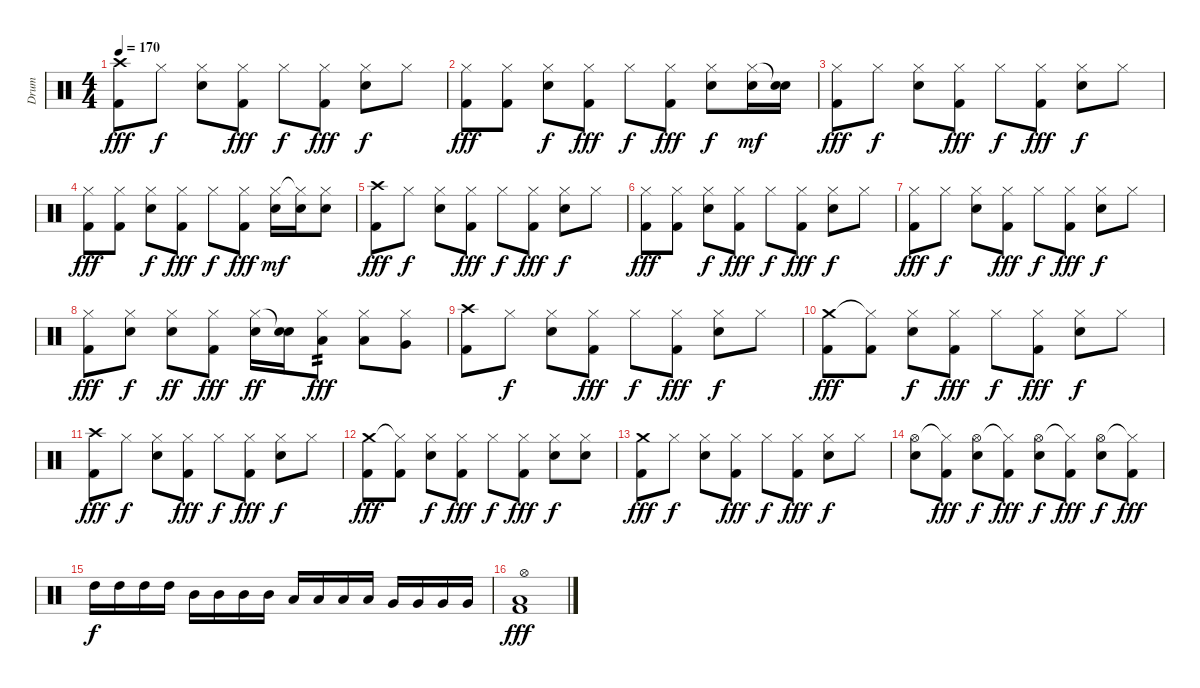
\track ("Drum" "Drum") {instrument percussion}
\staff {score}
\articulation defaults
\ts (4 4)
\tempo 170
\clef neutral
\ks c
("Crash high (hit)" "Kick (hit) 2").8{dy fff} "Hi-Hat (closed)".8{dy f} ("Hi-Hat (closed)" "Snare (hit) 2").8 ("Hi-Hat (closed)" "Kick (hit) 2").8{dy fff} "Hi-Hat (closed)".8{dy f} ("Hi-Hat (closed)" "Kick (hit) 2").8{dy fff} ("Hi-Hat (closed)" "Snare (hit) 2").8{dy f} "Hi-Hat (closed)".8 |
("Hi-Hat (closed)" "Kick (hit) 2").8{dy fff} ("Hi-Hat (closed)" "Kick (hit) 2").8 ("Hi-Hat (closed)" "Snare (hit) 2").8{dy f} ("Hi-Hat (closed)" "Kick (hit) 2").8{dy fff} "Hi-Hat (closed)".8{dy f} ("Hi-Hat (closed)" "Kick (hit) 2").8{dy fff} ("Hi-Hat (closed)" "Snare (hit) 2").8{dy f} ("Hi-Hat (closed)" "Snare (hit) 2").16{dy mf} ("Snare (hit)"{t} "Snare (hit) 2").16 |
("Hi-Hat (closed)" "Kick (hit) 2").8{dy fff} "Hi-Hat (closed)".8{dy f} ("Hi-Hat (closed)" "Snare (hit) 2").8 ("Hi-Hat (closed)" "Kick (hit) 2").8{dy fff} "Hi-Hat (closed)".8{dy f} ("Hi-Hat (closed)" "Kick (hit) 2").8{dy fff} ("Hi-Hat (closed)" "Snare (hit) 2").8{dy f} "Hi-Hat (closed)".8 |
("Hi-Hat (closed)" "Kick (hit) 2").8{dy fff} ("Hi-Hat (closed)" "Kick (hit) 2").8 ("Hi-Hat (closed)" "Snare (hit) 2").8{dy f} ("Hi-Hat (closed)" "Kick (hit) 2").8{dy fff} "Hi-Hat (closed)".8{dy f} ("Hi-Hat (closed)" "Kick (hit) 2").8{dy fff} ("Hi-Hat (closed)" "Snare (hit) 2").16{dy mf} ("Hi-Hat (closed)"{t} "Snare (hit) 2").16 ("Hi-Hat (closed)" "Snare (hit) 2").8 |
("Crash high (hit)" "Kick (hit) 2").8{dy fff} "Hi-Hat (closed)".8{dy f} ("Hi-Hat (closed)" "Snare (hit) 2").8 ("Hi-Hat (closed)" "Kick (hit) 2").8{dy fff} "Hi-Hat (closed)".8{dy f} ("Hi-Hat (closed)" "Kick (hit) 2").8{dy fff} ("Hi-Hat (closed)" "Snare (hit) 2").8{dy f} "Hi-Hat (closed)".8 |
("Hi-Hat (closed)" "Kick (hit) 2").8{dy fff} ("Hi-Hat (closed)" "Kick (hit) 2").8 ("Hi-Hat (closed)" "Snare (hit) 2").8{dy f} ("Hi-Hat (closed)" "Kick (hit) 2").8{dy fff} "Hi-Hat (closed)".8{dy f} ("Hi-Hat (closed)" "Kick (hit) 2").8{dy fff} ("Hi-Hat (closed)" "Snare (hit) 2").8{dy f} "Hi-Hat (closed)".8 |
("Hi-Hat (closed)" "Kick (hit) 2").8{dy fff} "Hi-Hat (closed)".8{dy f} ("Hi-Hat (closed)" "Snare (hit) 2").8 ("Hi-Hat (closed)" "Kick (hit) 2").8{dy fff} "Hi-Hat (closed)".8{dy f} ("Hi-Hat (closed)" "Kick (hit) 2").8{dy fff} ("Hi-Hat (closed)" "Snare (hit) 2").8{dy f} "Hi-Hat (closed)".8 |
("Hi-Hat (closed)" "Kick (hit) 2").8{dy fff} ("Hi-Hat (closed)" "Snare (hit) 2").8{dy f} ("Hi-Hat (closed)" "Snare (hit) 2").8{dy ff} ("Hi-Hat (closed)" "Kick (hit) 2").8{dy fff} ("Hi-Hat (closed)" "Snare (hit) 2").16{dy ff} ("Snare (hit)"{t} "Snare (hit) 2").16 ("Hi-Hat (closed)" "Low Tom (hit)").8{tp 2 dy fff} ("Hi-Hat (closed)" "Low Tom (hit)").8 ("Hi-Hat (closed)" "Very Low Tom (hit)").8 |
("Crash high (hit)" "Kick (hit) 2").8 "Hi-Hat (closed)".8{dy f} ("Hi-Hat (closed)" "Snare (hit) 2").8 ("Hi-Hat (closed)" "Kick (hit) 2").8{dy fff} "Hi-Hat (closed)".8{dy f} ("Hi-Hat (closed)" "Kick (hit) 2").8{dy fff} ("Hi-Hat (closed)" "Snare (hit) 2").8{dy f} "Hi-Hat (closed)".8 |
("Crash medium (hit)" "Kick (hit) 2").8{dy fff} ("Hi-Hat (closed)"{t} "Kick (hit) 2").8 ("Hi-Hat (closed)" "Snare (hit) 2").8{dy f} ("Hi-Hat (closed)" "Kick (hit) 2").8{dy fff} "Hi-Hat (closed)".8{dy f} ("Hi-Hat (closed)" "Kick (hit) 2").8{dy fff} ("Hi-Hat (closed)" "Snare (hit) 2").8{dy f} "Hi-Hat (closed)".8 |
("Crash high (hit)" "Kick (hit) 2").8{dy fff} "Hi-Hat (closed)".8{dy f} ("Hi-Hat (closed)" "Snare (hit) 2").8 ("Hi-Hat (closed)" "Kick (hit) 2").8{dy fff} "Hi-Hat (closed)".8{dy f} ("Hi-Hat (closed)" "Kick (hit) 2").8{dy fff} ("Hi-Hat (closed)" "Snare (hit) 2").8{dy f} "Hi-Hat (closed)".8 |
("Crash medium (hit)" "Kick (hit) 2").8{dy fff} ("Hi-Hat (closed)"{t} "Kick (hit) 2").8 ("Hi-Hat (closed)" "Snare (hit) 2").8{dy f} ("Hi-Hat (closed)" "Kick (hit) 2").8{dy fff} "Hi-Hat (closed)".8{dy f} ("Hi-Hat (closed)" "Kick (hit) 2").8{dy fff} ("Hi-Hat (closed)" "Snare (hit) 2").8{dy f} ("Hi-Hat (closed)" "Snare (hit) 2").8 |
("Crash medium (hit)" "Kick (hit) 2").8{dy fff} "Hi-Hat (closed)".8{dy f} ("Hi-Hat (closed)" "Snare (hit) 2").8 ("Hi-Hat (closed)" "Kick (hit) 2").8{dy fff} "Hi-Hat (closed)".8{dy f} ("Hi-Hat (closed)" "Kick (hit) 2").8{dy fff} ("Hi-Hat (closed)" "Snare (hit) 2").8{dy f} "Hi-Hat (closed)".8 |
("Hi-Hat (open)" "Snare (hit) 2").8 ("Hi-Hat (closed)"{t} "Kick (hit) 2").8{dy fff} ("Hi-Hat (open)" "Snare (hit) 2").8{dy f} ("Hi-Hat (closed)"{t} "Kick (hit) 2").8{dy fff} ("Hi-Hat (open)" "Snare (hit) 2").8{dy f} ("Hi-Hat (closed)"{t} "Kick (hit) 2").8{dy fff} ("Hi-Hat (open)" "Snare (hit) 2").8{dy f} ("Hi-Hat (closed)"{t} "Kick (hit) 2").8{dy fff} |
"High Tom (hit)".16{dy f} "High Tom (hit)".16 "High Tom (hit)".16 "High Tom (hit)".16 "Mid Tom (hit)".16 "Mid Tom (hit)".16 "Mid Tom (hit)".16 "Mid Tom (hit)".16 "Low Tom (hit)".16 "Low Tom (hit)".16 "Low Tom (hit)".16 "Low Tom (hit)".16 "Very Low Tom (hit)".16 "Very Low Tom (hit)".16 "Very Low Tom (hit)".16 "Very Low Tom (hit)".16 |
("Hi-Hat (open)" "Low Floor Tom (hit)" "Kick (hit) 2").1{dy fff}
